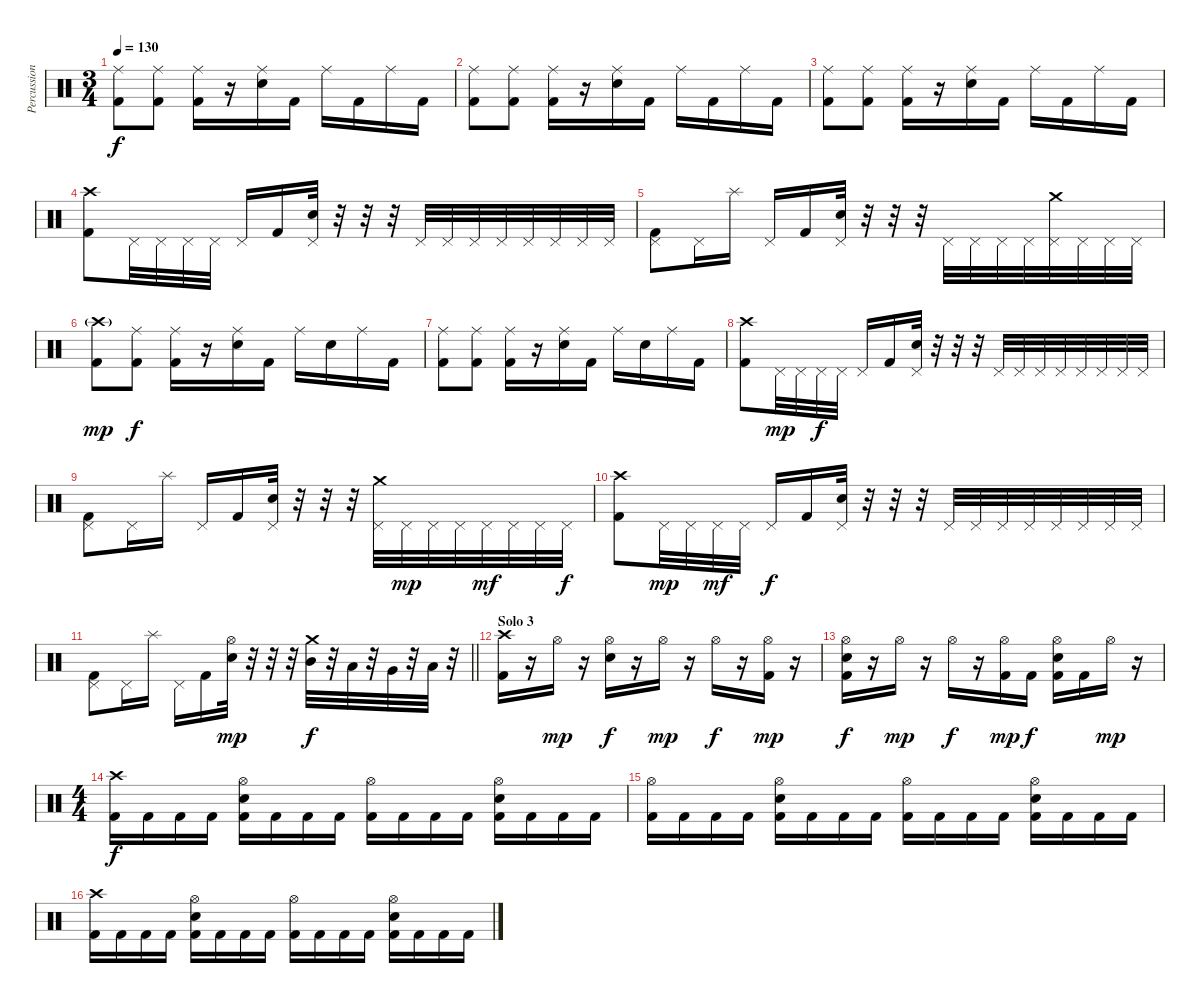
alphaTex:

\track ("Percussions" "Percussion") {instrument percussion}
\staff {score}
\articulation defaults
\ts (3 4)
\tempo 130
\clef neutral
\ks c
("Ride (middle)" "Kick (hit) 2").8{dy f} ("Ride (middle)" "Kick (hit) 2").8 ("Ride (middle)" "Kick (hit) 2").16 r.16 ("Ride (middle)" "Electric Snare (hit)").16 "Kick (hit) 2".16 "Ride (middle)".16 "Kick (hit) 2".16 "Ride (middle)".16 "Kick (hit) 2".16 |
("Ride (middle)" "Kick (hit) 2").8 ("Ride (middle)" "Kick (hit) 2").8 ("Ride (middle)" "Kick (hit) 2").16 r.16 ("Ride (middle)" "Electric Snare (hit)").16 "Kick (hit) 2".16 "Ride (middle)".16 "Kick (hit) 2".16 "Ride (middle)".16 "Kick (hit) 2".16 |
("Ride (middle)" "Kick (hit) 2").8 ("Ride (middle)" "Kick (hit) 2").8 ("Ride (middle)" "Kick (hit) 2").16 r.16 ("Ride (middle)" "Electric Snare (hit)").16 "Kick (hit) 2".16 "Ride (middle)".16 "Kick (hit) 2".16 "Ride (middle)".16 "Kick (hit) 2".16 |
("Crash high (hit)" "Kick (hit) 2").8 "Pedal Hi-Hat (hit)".32 "Pedal Hi-Hat (hit)".32 "Pedal Hi-Hat (hit)".32 "Pedal Hi-Hat (hit)".32 "Pedal Hi-Hat (hit)".16 "Kick (hit) 2".16 ("Pedal Hi-Hat (hit)" "Electric Snare (hit)").32 r.32 r.32 r.32 "Pedal Hi-Hat (hit)".32 "Pedal Hi-Hat (hit)".32 "Pedal Hi-Hat (hit)".32 "Pedal Hi-Hat (hit)".32 "Pedal Hi-Hat (hit)".32 "Pedal Hi-Hat (hit)".32 "Pedal Hi-Hat (hit)".32 "Pedal Hi-Hat (hit)".32 |
("Pedal Hi-Hat (hit)" "Kick (hit) 2").8 "Pedal Hi-Hat (hit)".16 "Splash (hit)".16 "Pedal Hi-Hat (hit)".16 "Kick (hit) 2".16 ("Pedal Hi-Hat (hit)" "Electric Snare (hit)").32 r.32 r.32 r.32 "Pedal Hi-Hat (hit)".32 "Pedal Hi-Hat (hit)".32 "Pedal Hi-Hat (hit)".32 "Pedal Hi-Hat (hit)".32 ("Crash medium (hit)" "Pedal Hi-Hat (hit)").32 "Pedal Hi-Hat (hit)".32 "Pedal Hi-Hat (hit)".32 "Pedal Hi-Hat (hit)".32 |
("Crash high (hit)"{g} "Kick (hit) 2").8{dy mp} ("Ride (middle)" "Kick (hit) 2").8{dy f} ("Ride (middle)" "Kick (hit) 2").16 r.16 ("Ride (middle)" "Electric Snare (hit)").16 "Kick (hit) 2".16 "Ride (middle)".16 "Electric Snare (hit)".16 "Ride (middle)".16 "Kick (hit) 2".16 |
("Ride (middle)" "Kick (hit) 2").8 ("Ride (middle)" "Kick (hit) 2").8 ("Ride (middle)" "Kick (hit) 2").16 r.16 ("Ride (middle)" "Electric Snare (hit)").16 "Kick (hit) 2".16 "Ride (middle)".16 "Electric Snare (hit)".16 "Ride (middle)".16 "Kick (hit) 2".16 |
("Crash high (hit)" "Kick (hit) 2").8 "Pedal Hi-Hat (hit)".32{dy mp} "Pedal Hi-Hat (hit)".32 "Pedal Hi-Hat (hit)".32{dy f} "Pedal Hi-Hat (hit)".32 "Pedal Hi-Hat (hit)".16 "Kick (hit) 2".16 ("Pedal Hi-Hat (hit)" "Electric Snare (hit)").32 r.32 r.32 r.32 "Pedal Hi-Hat (hit)".32 "Pedal Hi-Hat (hit)".32 "Pedal Hi-Hat (hit)".32 "Pedal Hi-Hat (hit)".32 "Pedal Hi-Hat (hit)".32 "Pedal Hi-Hat (hit)".32 "Pedal Hi-Hat (hit)".32 "Pedal Hi-Hat (hit)".32 |
("Pedal Hi-Hat (hit)" "Kick (hit) 2").8 "Pedal Hi-Hat (hit)".16 "Splash (hit)".16 "Pedal Hi-Hat (hit)".16 "Kick (hit) 2".16 ("Pedal Hi-Hat (hit)" "Electric Snare (hit)").32 r.32 r.32 r.32 ("Crash medium (hit)" "Pedal Hi-Hat (hit)").32 "Pedal Hi-Hat (hit)".32{dy mp} "Pedal Hi-Hat (hit)".32 "Pedal Hi-Hat (hit)".32 "Pedal Hi-Hat (hit)".32{dy mf} "Pedal Hi-Hat (hit)".32 "Pedal Hi-Hat (hit)".32 "Pedal Hi-Hat (hit)".32{dy f} |
("Crash high (hit)" "Kick (hit) 2").8 "Pedal Hi-Hat (hit)".32{dy mp} "Pedal Hi-Hat (hit)".32 "Pedal Hi-Hat (hit)".32{dy mf} "Pedal Hi-Hat (hit)".32 "Pedal Hi-Hat (hit)".16{dy f} "Kick (hit) 2".16 ("Pedal Hi-Hat (hit)" "Electric Snare (hit)").32 r.32 r.32 r.32 "Pedal Hi-Hat (hit)".32 "Pedal Hi-Hat (hit)".32 "Pedal Hi-Hat (hit)".32 "Pedal Hi-Hat (hit)".32 "Pedal Hi-Hat (hit)".32 "Pedal Hi-Hat (hit)".32 "Pedal Hi-Hat (hit)".32 "Pedal Hi-Hat (hit)".32 |
\barLineRight lightlight
("Pedal Hi-Hat (hit)" "Kick (hit) 2").8 "Pedal Hi-Hat (hit)".16 "Splash (hit)".16 "Pedal Hi-Hat (hit)".16 "Kick (hit) 2".16 ("Hi-Hat (open)" "Electric Snare (hit)").32{dy mp} r.32 r.32 r.32 ("Crash medium (hit)" "Mid Tom (hit)").32{dy f} r.32 "Low Tom (hit)".32 r.32 "Very Low Tom (hit)".32 r.32 "Low Floor Tom (hit)".32 r.32 |
\section ("" "Solo 3")
("Crash high (hit)" "Kick (hit) 2").16 r.16 "Hi-Hat (open)".16{dy mp} r.16 ("Hi-Hat (open)" "Electric Snare (hit)").16{dy f} r.16 "Hi-Hat (open)".16{dy mp} r.16 "Hi-Hat (open)".16{dy f} r.16 ("Hi-Hat (open)" "Kick (hit) 2").16{dy mp} r.16 |
("Hi-Hat (open)" "Electric Snare (hit)" "Kick (hit) 2").16{dy f} r.16 "Hi-Hat (open)".16{dy mp} r.16 "Hi-Hat (open)".16{dy f} r.16 ("Hi-Hat (open)" "Kick (hit) 2").16{dy mp} "Kick (hit) 2".16{dy f} ("Hi-Hat (open)" "Electric Snare (hit)" "Kick (hit) 2").16 "Kick (hit) 2".16 "Hi-Hat (open)".16{dy mp} r.16 |
\ts (4 4)
("Crash high (hit)" "Kick (hit) 2").16{dy f} "Kick (hit) 2".16 "Kick (hit) 2".16 "Kick (hit) 2".16 ("Hi-Hat (open)" "Electric Snare (hit)" "Kick (hit) 2").16 "Kick (hit) 2".16 "Kick (hit) 2".16 "Kick (hit) 2".16 ("Hi-Hat (open)" "Kick (hit) 2").16 "Kick (hit) 2".16 "Kick (hit) 2".16 "Kick (hit) 2".16 ("Hi-Hat (open)" "Electric Snare (hit)" "Kick (hit) 2").16 "Kick (hit) 2".16 "Kick (hit) 2".16 "Kick (hit) 2".16 |
("Hi-Hat (open)" "Kick (hit) 2").16 "Kick (hit) 2".16 "Kick (hit) 2".16 "Kick (hit) 2".16 ("Hi-Hat (open)" "Electric Snare (hit)" "Kick (hit) 2").16 "Kick (hit) 2".16 "Kick (hit) 2".16 "Kick (hit) 2".16 ("Hi-Hat (open)" "Kick (hit) 2").16 "Kick (hit) 2".16 "Kick (hit) 2".16 "Kick (hit) 2".16 ("Hi-Hat (open)" "Electric Snare (hit)" "Kick (hit) 2").16 "Kick (hit) 2".16 "Kick (hit) 2".16 "Kick (hit) 2".16 |
("Crash high (hit)" "Kick (hit) 2").16 "Kick (hit) 2".16 "Kick (hit) 2".16 "Kick (hit) 2".16 ("Hi-Hat (open)" "Electric Snare (hit)" "Kick (hit) 2").16 "Kick (hit) 2".16 "Kick (hit) 2".16 "Kick (hit) 2".16 ("Hi-Hat (open)" "Kick (hit) 2").16 "Kick (hit) 2".16 "Kick (hit) 2".16 "Kick (hit) 2".16 ("Hi-Hat (open)" "Electric Snare (hit)" "Kick (hit) 2").16 "Kick (hit) 2".16 "Kick (hit) 2".16 "Kick (hit) 2".16
